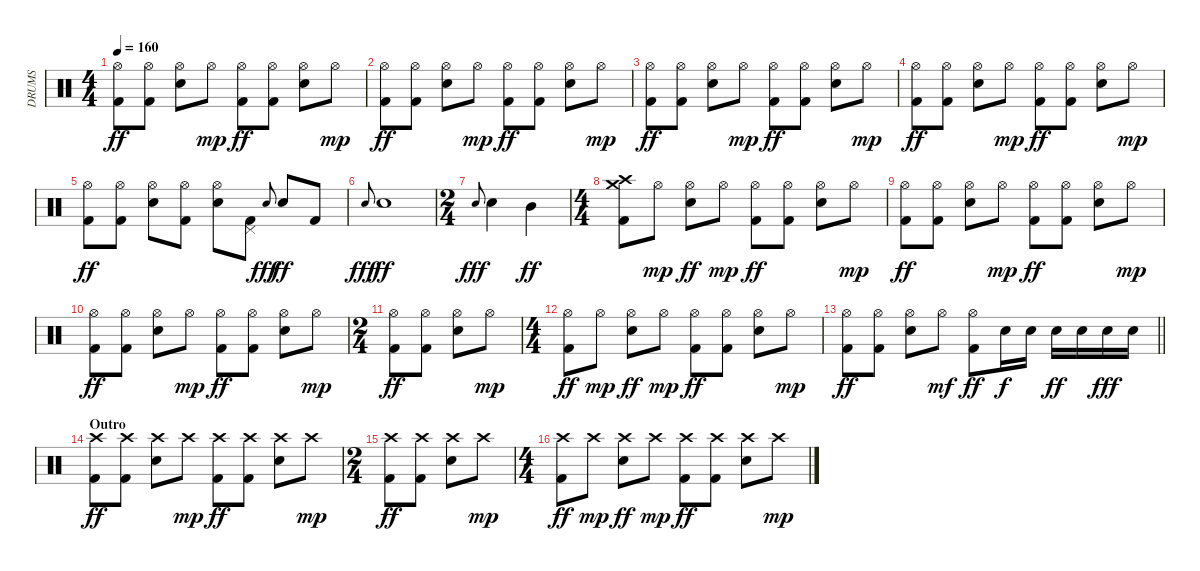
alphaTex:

\track ("DRUMS" "DRUMS") {instrument percussion}
\staff {score}
\articulation defaults
\ts (4 4)
\tempo 160
\clef neutral
\ks c
("Hi-Hat (open)" "Kick (hit) 2").8{dy ff} ("Hi-Hat (open)" "Kick (hit) 2").8 ("Hi-Hat (open)" "Snare (hit) 2").8 "Hi-Hat (open)".8{dy mp} ("Hi-Hat (open)" "Kick (hit) 2").8{dy ff} ("Hi-Hat (open)" "Kick (hit) 2").8 ("Hi-Hat (open)" "Snare (hit) 2").8 "Hi-Hat (open)".8{dy mp} |
("Hi-Hat (open)" "Kick (hit) 2").8{dy ff} ("Hi-Hat (open)" "Kick (hit) 2").8 ("Hi-Hat (open)" "Snare (hit) 2").8 "Hi-Hat (open)".8{dy mp} ("Hi-Hat (open)" "Kick (hit) 2").8{dy ff} ("Hi-Hat (open)" "Kick (hit) 2").8 ("Hi-Hat (open)" "Snare (hit) 2").8 "Hi-Hat (open)".8{dy mp} |
("Hi-Hat (open)" "Kick (hit) 2").8{dy ff} ("Hi-Hat (open)" "Kick (hit) 2").8 ("Hi-Hat (open)" "Snare (hit) 2").8 "Hi-Hat (open)".8{dy mp} ("Hi-Hat (open)" "Kick (hit) 2").8{dy ff} ("Hi-Hat (open)" "Kick (hit) 2").8 ("Hi-Hat (open)" "Snare (hit) 2").8 "Hi-Hat (open)".8{dy mp} |
("Hi-Hat (open)" "Kick (hit) 2").8{dy ff} ("Hi-Hat (open)" "Kick (hit) 2").8 ("Hi-Hat (open)" "Snare (hit) 2").8 "Hi-Hat (open)".8{dy mp} ("Hi-Hat (open)" "Kick (hit) 2").8{dy ff} ("Hi-Hat (open)" "Kick (hit) 2").8 ("Hi-Hat (open)" "Snare (hit) 2").8 "Hi-Hat (open)".8{dy mp} |
("Hi-Hat (open)" "Kick (hit) 2").8{dy ff} ("Hi-Hat (open)" "Kick (hit) 2").8 ("Hi-Hat (open)" "Snare (hit) 2").8 ("Hi-Hat (open)" "Kick (hit) 2").8 ("Hi-Hat (open)" "Snare (hit) 2").8 ("Pedal Hi-Hat (hit)" "Kick (hit) 2").8 "Electric Snare (hit)".8{gr onbeat dy fff} "Snare (hit) 2".8{dy ff} "Kick (hit) 2".8 |
"Electric Snare (hit)".8{gr onbeat dy fff} "Snare (hit) 2".1{dy ff} |
\ts (2 4)
"Electric Snare (hit)".8{gr onbeat dy fff} "Snare (hit) 2".4 "Mid Tom (hit)".4{dy ff} |
\ts (4 4)
("Crash high (hit)" "Crash medium (hit)" "Kick (hit) 2").8 "Hi-Hat (open)".8{dy mp} ("Hi-Hat (open)" "Snare (hit) 2").8{dy ff} "Hi-Hat (open)".8{dy mp} ("Hi-Hat (open)" "Kick (hit) 2").8{dy ff} ("Hi-Hat (open)" "Kick (hit) 2").8 ("Hi-Hat (open)" "Snare (hit) 2").8 "Hi-Hat (open)".8{dy mp} |
("Hi-Hat (open)" "Kick (hit) 2").8{dy ff} ("Hi-Hat (open)" "Kick (hit) 2").8 ("Hi-Hat (open)" "Snare (hit) 2").8 "Hi-Hat (open)".8{dy mp} ("Hi-Hat (open)" "Kick (hit) 2").8{dy ff} ("Hi-Hat (open)" "Kick (hit) 2").8 ("Hi-Hat (open)" "Snare (hit) 2").8 "Hi-Hat (open)".8{dy mp} |
("Hi-Hat (open)" "Kick (hit) 2").8{dy ff} ("Hi-Hat (open)" "Kick (hit) 2").8 ("Hi-Hat (open)" "Snare (hit) 2").8 "Hi-Hat (open)".8{dy mp} ("Hi-Hat (open)" "Kick (hit) 2").8{dy ff} ("Hi-Hat (open)" "Kick (hit) 2").8 ("Hi-Hat (open)" "Snare (hit) 2").8 "Hi-Hat (open)".8{dy mp} |
\ts (2 4)
("Hi-Hat (open)" "Kick (hit) 2").8{dy ff} ("Hi-Hat (open)" "Kick (hit) 2").8 ("Hi-Hat (open)" "Snare (hit) 2").8 "Hi-Hat (open)".8{dy mp} |
\ts (4 4)
("Hi-Hat (open)" "Kick (hit) 2").8{dy ff} "Hi-Hat (open)".8{dy mp} ("Hi-Hat (open)" "Snare (hit) 2").8{dy ff} "Hi-Hat (open)".8{dy mp} ("Hi-Hat (open)" "Kick (hit) 2").8{dy ff} ("Hi-Hat (open)" "Kick (hit) 2").8 ("Hi-Hat (open)" "Snare (hit) 2").8 "Hi-Hat (open)".8{dy mp} |
\barLineRight lightlight
("Hi-Hat (open)" "Kick (hit) 2").8{dy ff} ("Hi-Hat (open)" "Kick (hit) 2").8 ("Hi-Hat (open)" "Snare (hit) 2").8 "Hi-Hat (open)".8{dy mf} ("Hi-Hat (open)" "Kick (hit) 2").8{dy ff} "Electric Snare (hit)".16{dy f} "Snare (hit) 2".16 "Electric Snare (hit)".16{dy ff} "Snare (hit) 2".16 "Electric Snare (hit)".16{dy fff} "Snare (hit) 2".16 |
\section ("" "Outro")
("Crash high (hit)" "Kick (hit) 2").8{dy ff} ("Crash high (hit)" "Kick (hit) 2").8 ("Crash high (hit)" "Snare (hit) 2").8 "Crash high (hit)".8{dy mp} ("Crash high (hit)" "Kick (hit) 2").8{dy ff} ("Crash high (hit)" "Kick (hit) 2").8 ("Crash high (hit)" "Snare (hit) 2").8 "Crash high (hit)".8{dy mp} |
\ts (2 4)
("Crash high (hit)" "Kick (hit) 2").8{dy ff} ("Crash high (hit)" "Kick (hit) 2").8 ("Crash high (hit)" "Snare (hit) 2").8 "Crash high (hit)".8{dy mp} |
\ts (4 4)
("Crash high (hit)" "Kick (hit) 2").8{dy ff} "Crash high (hit)".8{dy mp} ("Crash high (hit)" "Snare (hit) 2").8{dy ff} "Crash high (hit)".8{dy mp} ("Crash high (hit)" "Kick (hit) 2").8{dy ff} ("Crash high (hit)" "Kick (hit) 2").8 ("Crash high (hit)" "Snare (hit) 2").8 "Crash high (hit)".8{dy mp}
